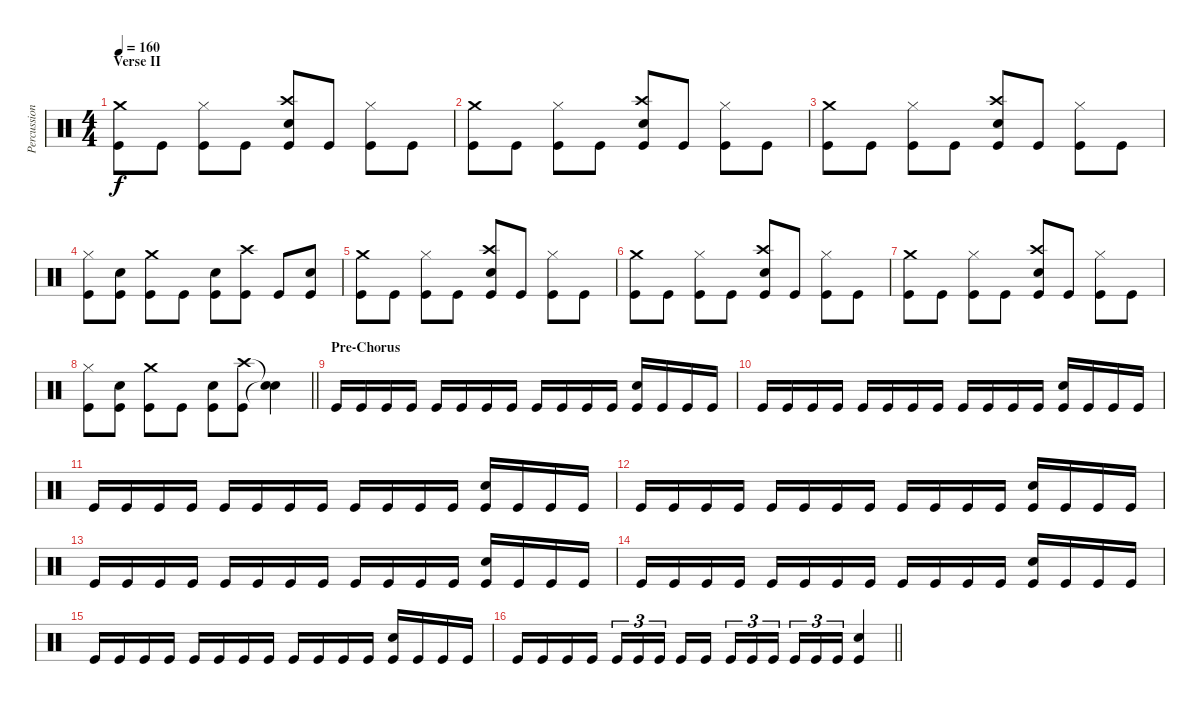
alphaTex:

\track ("Percussion" "Percussion") {instrument percussion}
\staff {score}
\articulation defaults
\ts (4 4)
\section ("" "Verse II")
\tempo 160
\clef neutral
\ks c
("Crash medium (hit)" "Kick (hit)").8{dy f} "Kick (hit)".8 ("Hi-Hat (closed)" "Kick (hit)").8 "Kick (hit)".8 ("Crash high (hit)" "Electric Snare (hit)" "Kick (hit)").8 "Kick (hit)".8 ("Hi-Hat (closed)" "Kick (hit)").8 "Kick (hit)".8 |
("Crash medium (hit)" "Kick (hit)").8 "Kick (hit)".8 ("Hi-Hat (closed)" "Kick (hit)").8 "Kick (hit)".8 ("Crash high (hit)" "Electric Snare (hit)" "Kick (hit)").8 "Kick (hit)".8 ("Hi-Hat (closed)" "Kick (hit)").8 "Kick (hit)".8 |
("Crash medium (hit)" "Kick (hit)").8 "Kick (hit)".8 ("Hi-Hat (closed)" "Kick (hit)").8 "Kick (hit)".8 ("Crash high (hit)" "Electric Snare (hit)" "Kick (hit)").8 "Kick (hit)".8 ("Hi-Hat (closed)" "Kick (hit)").8 "Kick (hit)".8 |
("Hi-Hat (closed)" "Kick (hit)").8 ("Electric Snare (hit)" "Kick (hit)").8 ("Crash medium (hit)" "Kick (hit)").8 "Kick (hit)".8 ("Electric Snare (hit)" "Kick (hit)").8 ("Crash high (hit)" "Kick (hit)").8 "Kick (hit)".8 ("Electric Snare (hit)" "Kick (hit)").8 |
("Crash medium (hit)" "Kick (hit)").8 "Kick (hit)".8 ("Hi-Hat (closed)" "Kick (hit)").8 "Kick (hit)".8 ("Crash high (hit)" "Electric Snare (hit)" "Kick (hit)").8 "Kick (hit)".8 ("Hi-Hat (closed)" "Kick (hit)").8 "Kick (hit)".8 |
("Crash medium (hit)" "Kick (hit)").8 "Kick (hit)".8 ("Hi-Hat (closed)" "Kick (hit)").8 "Kick (hit)".8 ("Crash high (hit)" "Electric Snare (hit)" "Kick (hit)").8 "Kick (hit)".8 ("Hi-Hat (closed)" "Kick (hit)").8 "Kick (hit)".8 |
("Crash medium (hit)" "Kick (hit)").8 "Kick (hit)".8 ("Hi-Hat (closed)" "Kick (hit)").8 "Kick (hit)".8 ("Crash high (hit)" "Electric Snare (hit)" "Kick (hit)").8 "Kick (hit)".8 ("Hi-Hat (closed)" "Kick (hit)").8 "Kick (hit)".8 |
\barLineRight lightlight
("Hi-Hat (closed)" "Kick (hit)").8 ("Electric Snare (hit)" "Kick (hit)").8 ("Crash medium (hit)" "Kick (hit)").8 "Kick (hit)".8 ("Electric Snare (hit)" "Kick (hit)").8 ("Crash high (hit)" "Kick (hit)").8 ("Snare (hit)"{t} "Snare (hit)"{t}).4 |
\section ("" "Pre-Chorus")
"Kick (hit)".16 "Kick (hit)".16 "Kick (hit)".16 "Kick (hit)".16 "Kick (hit)".16 "Kick (hit)".16 "Kick (hit)".16 "Kick (hit)".16 "Kick (hit)".16 "Kick (hit)".16 "Kick (hit)".16 "Kick (hit)".16 ("Electric Snare (hit)" "Kick (hit)").16 "Kick (hit)".16 "Kick (hit)".16 "Kick (hit)".16 |
"Kick (hit)".16 "Kick (hit)".16 "Kick (hit)".16 "Kick (hit)".16 "Kick (hit)".16 "Kick (hit)".16 "Kick (hit)".16 "Kick (hit)".16 "Kick (hit)".16 "Kick (hit)".16 "Kick (hit)".16 "Kick (hit)".16 ("Electric Snare (hit)" "Kick (hit)").16 "Kick (hit)".16 "Kick (hit)".16 "Kick (hit)".16 |
"Kick (hit)".16 "Kick (hit)".16 "Kick (hit)".16 "Kick (hit)".16 "Kick (hit)".16 "Kick (hit)".16 "Kick (hit)".16 "Kick (hit)".16 "Kick (hit)".16 "Kick (hit)".16 "Kick (hit)".16 "Kick (hit)".16 ("Electric Snare (hit)" "Kick (hit)").16 "Kick (hit)".16 "Kick (hit)".16 "Kick (hit)".16 |
"Kick (hit)".16 "Kick (hit)".16 "Kick (hit)".16 "Kick (hit)".16 "Kick (hit)".16 "Kick (hit)".16 "Kick (hit)".16 "Kick (hit)".16 "Kick (hit)".16 "Kick (hit)".16 "Kick (hit)".16 "Kick (hit)".16 ("Electric Snare (hit)" "Kick (hit)").16 "Kick (hit)".16 "Kick (hit)".16 "Kick (hit)".16 |
"Kick (hit)".16 "Kick (hit)".16 "Kick (hit)".16 "Kick (hit)".16 "Kick (hit)".16 "Kick (hit)".16 "Kick (hit)".16 "Kick (hit)".16 "Kick (hit)".16 "Kick (hit)".16 "Kick (hit)".16 "Kick (hit)".16 ("Electric Snare (hit)" "Kick (hit)").16 "Kick (hit)".16 "Kick (hit)".16 "Kick (hit)".16 |
"Kick (hit)".16 "Kick (hit)".16 "Kick (hit)".16 "Kick (hit)".16 "Kick (hit)".16 "Kick (hit)".16 "Kick (hit)".16 "Kick (hit)".16 "Kick (hit)".16 "Kick (hit)".16 "Kick (hit)".16 "Kick (hit)".16 ("Electric Snare (hit)" "Kick (hit)").16 "Kick (hit)".16 "Kick (hit)".16 "Kick (hit)".16 |
"Kick (hit)".16 "Kick (hit)".16 "Kick (hit)".16 "Kick (hit)".16 "Kick (hit)".16 "Kick (hit)".16 "Kick (hit)".16 "Kick (hit)".16 "Kick (hit)".16 "Kick (hit)".16 "Kick (hit)".16 "Kick (hit)".16 ("Electric Snare (hit)" "Kick (hit)").16 "Kick (hit)".16 "Kick (hit)".16 "Kick (hit)".16 |
\barLineRight lightlight "Kick (hit)".16 "Kick (hit)".16 "Kick (hit)".16 "Kick (hit)".16 "Kick (hit)".16{tu (3 2)} "Kick (hit)".16{tu (3 2)} "Kick (hit)".16{tu (3 2) beam splitsecondary} "Kick (hit)".16 "Kick (hit)".16 "Kick (hit)".16{tu (3 2)} "Kick (hit)".16{tu (3 2)} "Kick (hit)".16{tu (3 2) beam splitsecondary} "Kick (hit)".16{tu (3 2)} "Kick (hit)".16{tu (3 2)} "Kick (hit)".16{tu (3 2)}
("Electric Snare (hit)" "Kick (hit)").4
